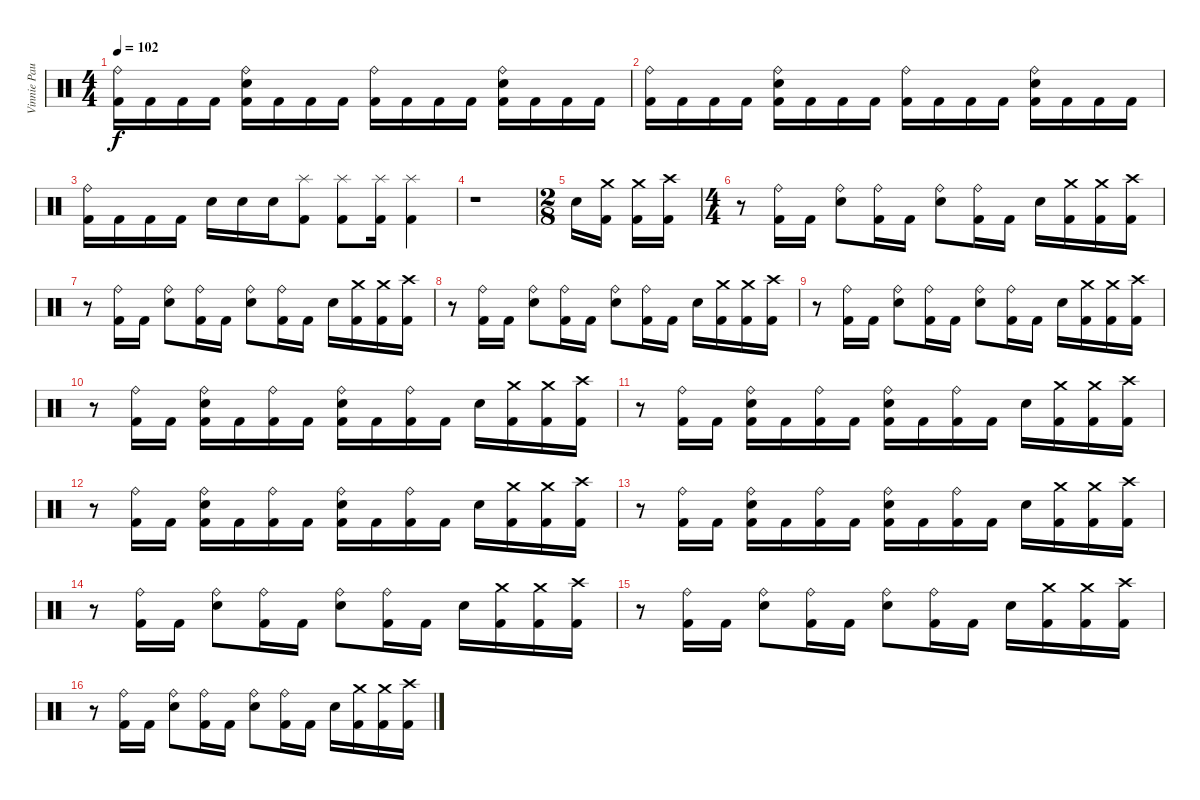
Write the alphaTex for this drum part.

\track ("Vinnie Paul" "Vinnie Pau") {instrument percussion}
\staff {score}
\articulation defaults
\ts (4 4)
\tempo 102
\clef neutral
\ks c
("Ride (bell)" "Kick (hit) 2").16{dy f} "Kick (hit) 2".16 "Kick (hit) 2".16 "Kick (hit) 2".16 ("Ride (bell)" "Snare (hit) 2" "Kick (hit) 2").16 "Kick (hit) 2".16 "Kick (hit) 2".16 "Kick (hit) 2".16 ("Ride (bell)" "Kick (hit) 2").16 "Kick (hit) 2".16 "Kick (hit) 2".16 "Kick (hit) 2".16 ("Ride (bell)" "Snare (hit) 2" "Kick (hit) 2").16 "Kick (hit) 2".16 "Kick (hit) 2".16 "Kick (hit) 2".16 |
("Ride (bell)" "Kick (hit) 2").16 "Kick (hit) 2".16 "Kick (hit) 2".16 "Kick (hit) 2".16 ("Ride (bell)" "Snare (hit) 2" "Kick (hit) 2").16 "Kick (hit) 2".16 "Kick (hit) 2".16 "Kick (hit) 2".16 ("Ride (bell)" "Kick (hit) 2").16 "Kick (hit) 2".16 "Kick (hit) 2".16 "Kick (hit) 2".16 ("Ride (bell)" "Snare (hit) 2" "Kick (hit) 2").16 "Kick (hit) 2".16 "Kick (hit) 2".16 "Kick (hit) 2".16 |
("Ride (bell)" "Kick (hit) 2").16 "Kick (hit) 2".16 "Kick (hit) 2".16 "Kick (hit) 2".16 "Snare (hit) 2".16 "Snare (hit) 2".16 "Snare (hit) 2".16 ("Splash (hit)" "Kick (hit) 2").8 ("Splash (hit)" "Kick (hit) 2").8 ("Splash (hit)" "Kick (hit) 2").16 ("Splash (hit)" "Kick (hit) 2").4 |
r.1 |
\ts (2 8)
"Snare (hit) 2".16 ("Crash medium (hit)" "Kick (hit) 2").16 ("Crash medium (hit)" "Kick (hit) 2").16 ("Crash high (hit)" "Kick (hit) 2").16 |
\ts (4 4)
r.8 ("Ride (bell)" "Kick (hit) 2").16 "Kick (hit) 2".16 ("Ride (bell)" "Snare (hit) 2").8 ("Ride (bell)" "Kick (hit) 2").16 "Kick (hit) 2".16 ("Ride (bell)" "Snare (hit) 2").8 ("Ride (bell)" "Kick (hit) 2").16 "Kick (hit) 2".16 "Snare (hit) 2".16 ("Crash medium (hit)" "Kick (hit) 2").16 ("Crash medium (hit)" "Kick (hit) 2").16 ("Crash high (hit)" "Kick (hit) 2").16 |
r.8 ("Ride (bell)" "Kick (hit) 2").16 "Kick (hit) 2".16 ("Ride (bell)" "Snare (hit) 2").8 ("Ride (bell)" "Kick (hit) 2").16 "Kick (hit) 2".16 ("Ride (bell)" "Snare (hit) 2").8 ("Ride (bell)" "Kick (hit) 2").16 "Kick (hit) 2".16 "Snare (hit) 2".16 ("Crash medium (hit)" "Kick (hit) 2").16 ("Crash medium (hit)" "Kick (hit) 2").16 ("Crash high (hit)" "Kick (hit) 2").16 |
r.8 ("Ride (bell)" "Kick (hit) 2").16 "Kick (hit) 2".16 ("Ride (bell)" "Snare (hit) 2").8 ("Ride (bell)" "Kick (hit) 2").16 "Kick (hit) 2".16 ("Ride (bell)" "Snare (hit) 2").8 ("Ride (bell)" "Kick (hit) 2").16 "Kick (hit) 2".16 "Snare (hit) 2".16 ("Crash medium (hit)" "Kick (hit) 2").16 ("Crash medium (hit)" "Kick (hit) 2").16 ("Crash high (hit)" "Kick (hit) 2").16 |
r.8 ("Ride (bell)" "Kick (hit) 2").16 "Kick (hit) 2".16 ("Ride (bell)" "Snare (hit) 2").8 ("Ride (bell)" "Kick (hit) 2").16 "Kick (hit) 2".16 ("Ride (bell)" "Snare (hit) 2").8 ("Ride (bell)" "Kick (hit) 2").16 "Kick (hit) 2".16 "Snare (hit) 2".16 ("Crash medium (hit)" "Kick (hit) 2").16 ("Crash medium (hit)" "Kick (hit) 2").16 ("Crash high (hit)" "Kick (hit) 2").16 |
r.8 ("Ride (bell)" "Kick (hit) 2").16 "Kick (hit) 2".16 ("Ride (bell)" "Snare (hit) 2" "Kick (hit) 2").16 "Kick (hit) 2".16 ("Ride (bell)" "Kick (hit) 2").16 "Kick (hit) 2".16 ("Ride (bell)" "Snare (hit) 2" "Kick (hit) 2").16 "Kick (hit) 2".16 ("Ride (bell)" "Kick (hit) 2").16 "Kick (hit) 2".16 "Snare (hit) 2".16 ("Crash medium (hit)" "Kick (hit) 2").16 ("Crash medium (hit)" "Kick (hit) 2").16 ("Crash high (hit)" "Kick (hit) 2").16 |
r.8 ("Ride (bell)" "Kick (hit) 2").16 "Kick (hit) 2".16 ("Ride (bell)" "Snare (hit) 2" "Kick (hit) 2").16 "Kick (hit) 2".16 ("Ride (bell)" "Kick (hit) 2").16 "Kick (hit) 2".16 ("Ride (bell)" "Snare (hit) 2" "Kick (hit) 2").16 "Kick (hit) 2".16 ("Ride (bell)" "Kick (hit) 2").16 "Kick (hit) 2".16 "Snare (hit) 2".16 ("Crash medium (hit)" "Kick (hit) 2").16 ("Crash medium (hit)" "Kick (hit) 2").16 ("Crash high (hit)" "Kick (hit) 2").16 |
r.8 ("Ride (bell)" "Kick (hit) 2").16 "Kick (hit) 2".16 ("Ride (bell)" "Snare (hit) 2" "Kick (hit) 2").16 "Kick (hit) 2".16 ("Ride (bell)" "Kick (hit) 2").16 "Kick (hit) 2".16 ("Ride (bell)" "Snare (hit) 2" "Kick (hit) 2").16 "Kick (hit) 2".16 ("Ride (bell)" "Kick (hit) 2").16 "Kick (hit) 2".16 "Snare (hit) 2".16 ("Crash medium (hit)" "Kick (hit) 2").16 ("Crash medium (hit)" "Kick (hit) 2").16 ("Crash high (hit)" "Kick (hit) 2").16 |
r.8 ("Ride (bell)" "Kick (hit) 2").16 "Kick (hit) 2".16 ("Ride (bell)" "Snare (hit) 2" "Kick (hit) 2").16 "Kick (hit) 2".16 ("Ride (bell)" "Kick (hit) 2").16 "Kick (hit) 2".16 ("Ride (bell)" "Snare (hit) 2" "Kick (hit) 2").16 "Kick (hit) 2".16 ("Ride (bell)" "Kick (hit) 2").16 "Kick (hit) 2".16 "Snare (hit) 2".16 ("Crash medium (hit)" "Kick (hit) 2").16 ("Crash medium (hit)" "Kick (hit) 2").16 ("Crash high (hit)" "Kick (hit) 2").16 |
r.8 ("Ride (bell)" "Kick (hit) 2").16 "Kick (hit) 2".16 ("Ride (bell)" "Snare (hit) 2").8 ("Ride (bell)" "Kick (hit) 2").16 "Kick (hit) 2".16 ("Ride (bell)" "Snare (hit) 2").8 ("Ride (bell)" "Kick (hit) 2").16 "Kick (hit) 2".16 "Snare (hit) 2".16 ("Crash medium (hit)" "Kick (hit) 2").16 ("Crash medium (hit)" "Kick (hit) 2").16 ("Crash high (hit)" "Kick (hit) 2").16 |
r.8 ("Ride (bell)" "Kick (hit) 2").16 "Kick (hit) 2".16 ("Ride (bell)" "Snare (hit) 2").8 ("Ride (bell)" "Kick (hit) 2").16 "Kick (hit) 2".16 ("Ride (bell)" "Snare (hit) 2").8 ("Ride (bell)" "Kick (hit) 2").16 "Kick (hit) 2".16 "Snare (hit) 2".16 ("Crash medium (hit)" "Kick (hit) 2").16 ("Crash medium (hit)" "Kick (hit) 2").16 ("Crash high (hit)" "Kick (hit) 2").16 |
r.8 ("Ride (bell)" "Kick (hit) 2").16 "Kick (hit) 2".16 ("Ride (bell)" "Snare (hit) 2").8 ("Ride (bell)" "Kick (hit) 2").16 "Kick (hit) 2".16 ("Ride (bell)" "Snare (hit) 2").8 ("Ride (bell)" "Kick (hit) 2").16 "Kick (hit) 2".16 "Snare (hit) 2".16 ("Crash medium (hit)" "Kick (hit) 2").16 ("Crash medium (hit)" "Kick (hit) 2").16 ("Crash high (hit)" "Kick (hit) 2").16
